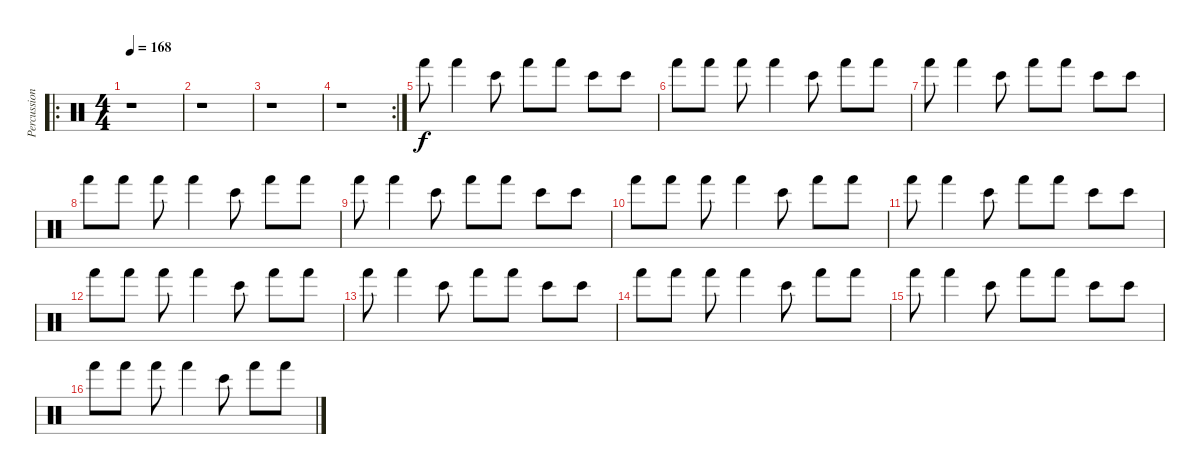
\track ("Percussions" "Percussion") {instrument percussion}
\staff {score}
\articulation defaults
\ro
\ts (4 4)
\tempo 168
\clef neutral
\ks c
r.1{dy f} |
r.1 |
r.1 |
\rc 2
r.1 |
"Hand (hit)".8 "Hand (hit)".4 "Bongo High (hit)".8 "Hand (hit)".8 "Hand (hit)".8 "Bongo High (hit)".8 "Bongo High (hit)".8 |
"Hand (hit)".8 "Hand (hit)".8 "Hand (hit)".8 "Hand (hit)".4 "Bongo High (hit)".8 "Hand (hit)".8 "Hand (hit)".8 |
"Hand (hit)".8 "Hand (hit)".4 "Bongo High (hit)".8 "Hand (hit)".8 "Hand (hit)".8 "Bongo High (hit)".8 "Bongo High (hit)".8 |
"Hand (hit)".8 "Hand (hit)".8 "Hand (hit)".8 "Hand (hit)".4 "Bongo High (hit)".8 "Hand (hit)".8 "Hand (hit)".8 |
"Hand (hit)".8 "Hand (hit)".4 "Bongo High (hit)".8 "Hand (hit)".8 "Hand (hit)".8 "Bongo High (hit)".8 "Bongo High (hit)".8 |
"Hand (hit)".8 "Hand (hit)".8 "Hand (hit)".8 "Hand (hit)".4 "Bongo High (hit)".8 "Hand (hit)".8 "Hand (hit)".8 |
"Hand (hit)".8 "Hand (hit)".4 "Bongo High (hit)".8 "Hand (hit)".8 "Hand (hit)".8 "Bongo High (hit)".8 "Bongo High (hit)".8 |
"Hand (hit)".8 "Hand (hit)".8 "Hand (hit)".8 "Hand (hit)".4 "Bongo High (hit)".8 "Hand (hit)".8 "Hand (hit)".8 |
"Hand (hit)".8 "Hand (hit)".4 "Bongo High (hit)".8 "Hand (hit)".8 "Hand (hit)".8 "Bongo High (hit)".8 "Bongo High (hit)".8 |
"Hand (hit)".8 "Hand (hit)".8 "Hand (hit)".8 "Hand (hit)".4 "Bongo High (hit)".8 "Hand (hit)".8 "Hand (hit)".8 |
"Hand (hit)".8 "Hand (hit)".4 "Bongo High (hit)".8 "Hand (hit)".8 "Hand (hit)".8 "Bongo High (hit)".8 "Bongo High (hit)".8 |
"Hand (hit)".8 "Hand (hit)".8 "Hand (hit)".8 "Hand (hit)".4 "Bongo High (hit)".8 "Hand (hit)".8 "Hand (hit)".8
